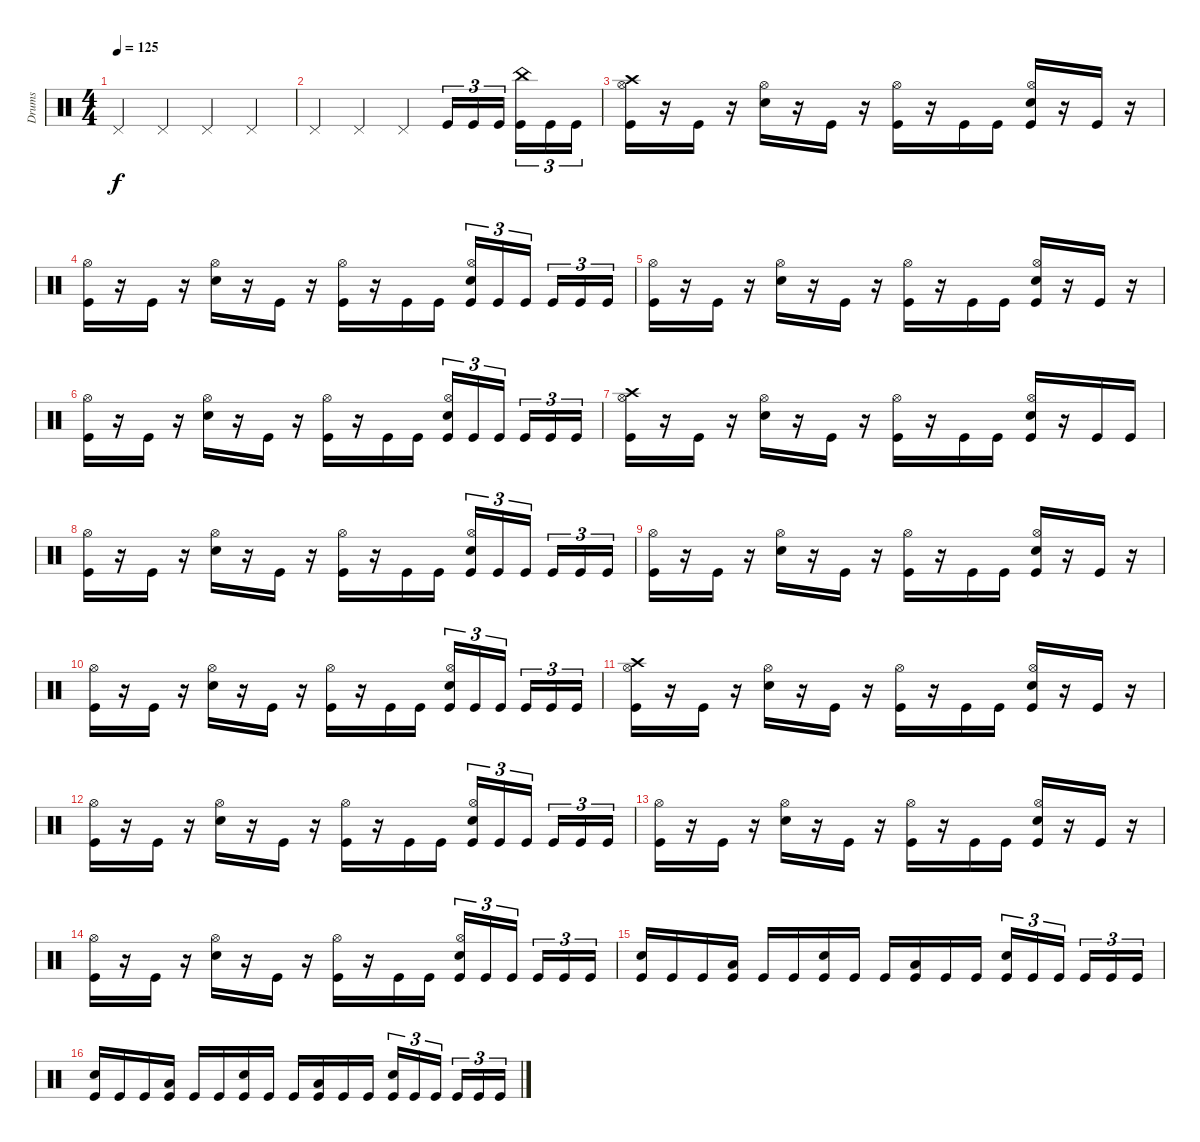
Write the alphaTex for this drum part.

\track ("Drums" "Drums") {instrument percussion}
\staff {score}
\articulation defaults
\ts (4 4)
\tempo 125
\clef neutral
\ks c "Pedal Hi-Hat (hit)".4{dy f} "Pedal Hi-Hat (hit)".4 "Pedal Hi-Hat (hit)".4 "Pedal Hi-Hat (hit)".4
|
"Pedal Hi-Hat (hit)".4 "Pedal Hi-Hat (hit)".4 "Pedal Hi-Hat (hit)".4 "Kick (hit)".16{tu (3 2)} "Kick (hit)".16{tu (3 2)} "Kick (hit)".16{tu (3 2)} ("China (hit)" "Kick (hit)").16{tu (3 2)} "Kick (hit)".16{tu (3 2)} "Kick (hit)".16{tu (3 2)} |
("Crash high (hit)" "Hi-Hat (open)" "Kick (hit)").16 r.16 "Kick (hit)".16 r.16 ("Hi-Hat (open)" "Snare (hit) 2").16 r.16 "Kick (hit)".16 r.16 ("Hi-Hat (open)" "Kick (hit)").16 r.16 "Kick (hit)".16 "Kick (hit)".16 ("Hi-Hat (open)" "Snare (hit) 2" "Kick (hit)").16 r.16 "Kick (hit)".16 r.16 |
("Hi-Hat (open)" "Kick (hit)").16 r.16 "Kick (hit)".16 r.16 ("Hi-Hat (open)" "Snare (hit) 2").16 r.16 "Kick (hit)".16 r.16 ("Hi-Hat (open)" "Kick (hit)").16 r.16 "Kick (hit)".16 "Kick (hit)".16 ("Hi-Hat (open)" "Snare (hit) 2" "Kick (hit)").16{tu (3 2)} "Kick (hit)".16{tu (3 2)} "Kick (hit)".16{tu (3 2)} "Kick (hit)".16{tu (3 2)} "Kick (hit)".16{tu (3 2)} "Kick (hit)".16{tu (3 2)} |
("Hi-Hat (open)" "Kick (hit)").16 r.16 "Kick (hit)".16 r.16 ("Hi-Hat (open)" "Snare (hit) 2").16 r.16 "Kick (hit)".16 r.16 ("Hi-Hat (open)" "Kick (hit)").16 r.16 "Kick (hit)".16 "Kick (hit)".16 ("Hi-Hat (open)" "Snare (hit) 2" "Kick (hit)").16 r.16 "Kick (hit)".16 r.16 |
("Hi-Hat (open)" "Kick (hit)").16 r.16 "Kick (hit)".16 r.16 ("Hi-Hat (open)" "Snare (hit) 2").16 r.16 "Kick (hit)".16 r.16 ("Hi-Hat (open)" "Kick (hit)").16 r.16 "Kick (hit)".16 "Kick (hit)".16 ("Hi-Hat (open)" "Snare (hit) 2" "Kick (hit)").16{tu (3 2)} "Kick (hit)".16{tu (3 2)} "Kick (hit)".16{tu (3 2)} "Kick (hit)".16{tu (3 2)} "Kick (hit)".16{tu (3 2)} "Kick (hit)".16{tu (3 2)} |
("Crash high (hit)" "Hi-Hat (open)" "Kick (hit)").16 r.16 "Kick (hit)".16 r.16 ("Hi-Hat (open)" "Snare (hit) 2").16 r.16 "Kick (hit)".16 r.16 ("Hi-Hat (open)" "Kick (hit)").16 r.16 "Kick (hit)".16 "Kick (hit)".16 ("Hi-Hat (open)" "Snare (hit) 2" "Kick (hit)").16 r.16 "Kick (hit)".16 "Kick (hit)".16 |
("Hi-Hat (open)" "Kick (hit)").16 r.16 "Kick (hit)".16 r.16 ("Hi-Hat (open)" "Snare (hit) 2").16 r.16 "Kick (hit)".16 r.16 ("Hi-Hat (open)" "Kick (hit)").16 r.16 "Kick (hit)".16 "Kick (hit)".16 ("Hi-Hat (open)" "Snare (hit) 2" "Kick (hit)").16{tu (3 2)} "Kick (hit)".16{tu (3 2)} "Kick (hit)".16{tu (3 2)} "Kick (hit)".16{tu (3 2)} "Kick (hit)".16{tu (3 2)} "Kick (hit)".16{tu (3 2)} |
("Hi-Hat (open)" "Kick (hit)").16 r.16 "Kick (hit)".16 r.16 ("Hi-Hat (open)" "Snare (hit) 2").16 r.16 "Kick (hit)".16 r.16 ("Hi-Hat (open)" "Kick (hit)").16 r.16 "Kick (hit)".16 "Kick (hit)".16 ("Hi-Hat (open)" "Snare (hit) 2" "Kick (hit)").16 r.16 "Kick (hit)".16 r.16 |
("Hi-Hat (open)" "Kick (hit)").16 r.16 "Kick (hit)".16 r.16 ("Hi-Hat (open)" "Snare (hit) 2").16 r.16 "Kick (hit)".16 r.16 ("Hi-Hat (open)" "Kick (hit)").16 r.16 "Kick (hit)".16 "Kick (hit)".16 ("Hi-Hat (open)" "Snare (hit) 2" "Kick (hit)").16{tu (3 2)} "Kick (hit)".16{tu (3 2)} "Kick (hit)".16{tu (3 2)} "Kick (hit)".16{tu (3 2)} "Kick (hit)".16{tu (3 2)} "Kick (hit)".16{tu (3 2)} |
("Crash high (hit)" "Hi-Hat (open)" "Kick (hit)").16 r.16 "Kick (hit)".16 r.16 ("Hi-Hat (open)" "Snare (hit) 2").16 r.16 "Kick (hit)".16 r.16 ("Hi-Hat (open)" "Kick (hit)").16 r.16 "Kick (hit)".16 "Kick (hit)".16 ("Hi-Hat (open)" "Snare (hit) 2" "Kick (hit)").16 r.16 "Kick (hit)".16 r.16 |
("Hi-Hat (open)" "Kick (hit)").16 r.16 "Kick (hit)".16 r.16 ("Hi-Hat (open)" "Snare (hit) 2").16 r.16 "Kick (hit)".16 r.16 ("Hi-Hat (open)" "Kick (hit)").16 r.16 "Kick (hit)".16 "Kick (hit)".16 ("Hi-Hat (open)" "Snare (hit) 2" "Kick (hit)").16{tu (3 2)} "Kick (hit)".16{tu (3 2)} "Kick (hit)".16{tu (3 2)} "Kick (hit)".16{tu (3 2)} "Kick (hit)".16{tu (3 2)} "Kick (hit)".16{tu (3 2)} |
("Hi-Hat (open)" "Kick (hit)").16 r.16 "Kick (hit)".16 r.16 ("Hi-Hat (open)" "Snare (hit) 2").16 r.16 "Kick (hit)".16 r.16 ("Hi-Hat (open)" "Kick (hit)").16 r.16 "Kick (hit)".16 "Kick (hit)".16 ("Hi-Hat (open)" "Snare (hit) 2" "Kick (hit)").16 r.16 "Kick (hit)".16 r.16 |
("Hi-Hat (open)" "Kick (hit)").16 r.16 "Kick (hit)".16 r.16 ("Hi-Hat (open)" "Snare (hit) 2").16 r.16 "Kick (hit)".16 r.16 ("Hi-Hat (open)" "Kick (hit)").16 r.16 "Kick (hit)".16 "Kick (hit)".16 ("Hi-Hat (open)" "Snare (hit) 2" "Kick (hit)").16{tu (3 2)} "Kick (hit)".16{tu (3 2)} "Kick (hit)".16{tu (3 2)} "Kick (hit)".16{tu (3 2)} "Kick (hit)".16{tu (3 2)} "Kick (hit)".16{tu (3 2)} |
("Snare (hit) 2" "Kick (hit)").16 "Kick (hit)".16 "Kick (hit)".16 ("Low Floor Tom (hit)" "Kick (hit)").16 "Kick (hit)".16 "Kick (hit)".16 ("Snare (hit) 2" "Kick (hit)").16 "Kick (hit)".16 "Kick (hit)".16 ("Low Floor Tom (hit)" "Kick (hit)").16 "Kick (hit)".16 "Kick (hit)".16 ("Snare (hit) 2" "Kick (hit)").16{tu (3 2)} "Kick (hit)".16{tu (3 2)} "Kick (hit)".16{tu (3 2)} "Kick (hit)".16{tu (3 2)} "Kick (hit)".16{tu (3 2)} "Kick (hit)".16{tu (3 2)} |
("Snare (hit) 2" "Kick (hit)").16 "Kick (hit)".16 "Kick (hit)".16 ("Low Floor Tom (hit)" "Kick (hit)").16 "Kick (hit)".16 "Kick (hit)".16 ("Snare (hit) 2" "Kick (hit)").16 "Kick (hit)".16 "Kick (hit)".16 ("Low Floor Tom (hit)" "Kick (hit)").16 "Kick (hit)".16 "Kick (hit)".16 ("Snare (hit) 2" "Kick (hit)").16{tu (3 2)} "Kick (hit)".16{tu (3 2)} "Kick (hit)".16{tu (3 2)} "Kick (hit)".16{tu (3 2)} "Kick (hit)".16{tu (3 2)} "Kick (hit)".16{tu (3 2)}
